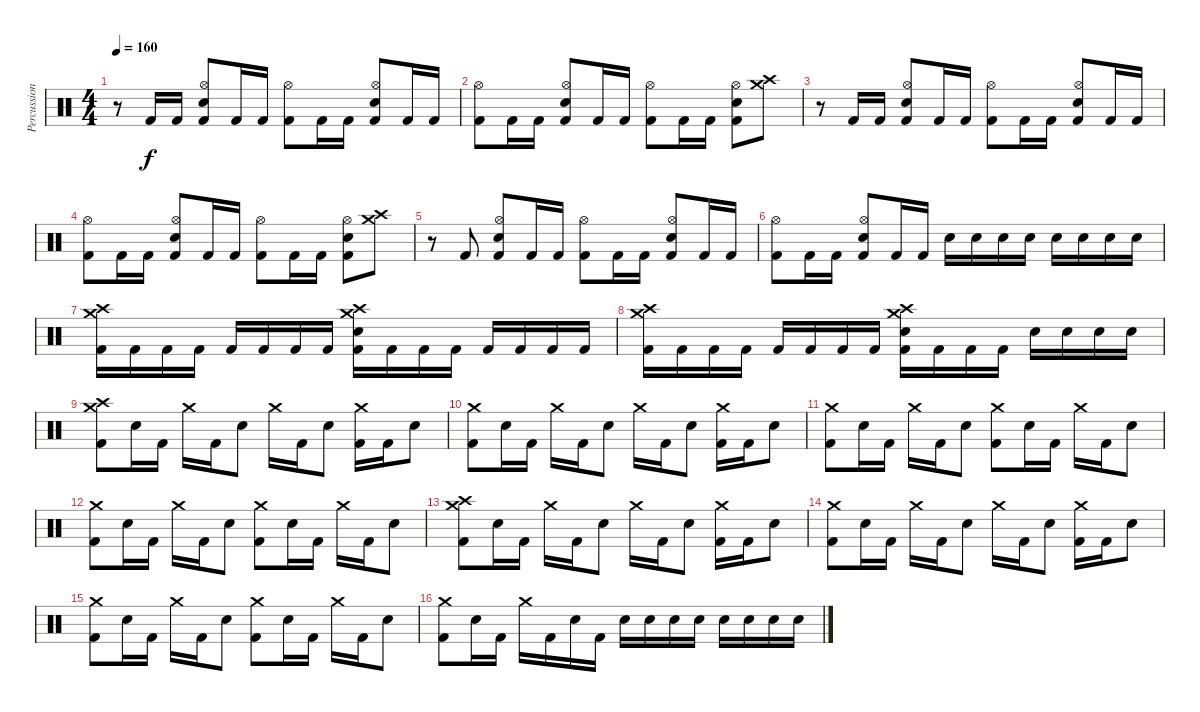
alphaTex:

\track ("Percussion" "Percussion") {instrument percussion}
\staff {score}
\articulation defaults
\ts (4 4)
\tempo 160
\clef neutral
\ks c
r.8{dy f} "Kick (hit) 2".16 "Kick (hit) 2".16 ("Hi-Hat (open)" "Electric Snare (hit)" "Kick (hit) 2").8 "Kick (hit) 2".16 "Kick (hit) 2".16 ("Hi-Hat (open)" "Kick (hit) 2").8 "Kick (hit) 2".16 "Kick (hit) 2".16 ("Hi-Hat (open)" "Electric Snare (hit)" "Kick (hit) 2").8 "Kick (hit) 2".16 "Kick (hit) 2".16 |
("Hi-Hat (open)" "Kick (hit) 2").8 "Kick (hit) 2".16 "Kick (hit) 2".16 ("Hi-Hat (open)" "Electric Snare (hit)" "Kick (hit) 2").8 "Kick (hit) 2".16 "Kick (hit) 2".16 ("Hi-Hat (open)" "Kick (hit) 2").8 "Kick (hit) 2".16 "Kick (hit) 2".16 ("Hi-Hat (open)" "Electric Snare (hit)" "Kick (hit) 2").8 ("Crash high (hit)" "Crash medium (hit)").8 |
r.8 "Kick (hit) 2".16 "Kick (hit) 2".16 ("Hi-Hat (open)" "Electric Snare (hit)" "Kick (hit) 2").8 "Kick (hit) 2".16 "Kick (hit) 2".16 ("Hi-Hat (open)" "Kick (hit) 2").8 "Kick (hit) 2".16 "Kick (hit) 2".16 ("Hi-Hat (open)" "Electric Snare (hit)" "Kick (hit) 2").8 "Kick (hit) 2".16 "Kick (hit) 2".16 |
("Hi-Hat (open)" "Kick (hit) 2").8 "Kick (hit) 2".16 "Kick (hit) 2".16 ("Hi-Hat (open)" "Electric Snare (hit)" "Kick (hit) 2").8 "Kick (hit) 2".16 "Kick (hit) 2".16 ("Hi-Hat (open)" "Kick (hit) 2").8 "Kick (hit) 2".16 "Kick (hit) 2".16 ("Hi-Hat (open)" "Electric Snare (hit)" "Kick (hit) 2").8 ("Crash high (hit)" "Crash medium (hit)").8 |
r.8 "Kick (hit) 2".8 ("Hi-Hat (open)" "Electric Snare (hit)" "Kick (hit) 2").8 "Kick (hit) 2".16 "Kick (hit) 2".16 ("Hi-Hat (open)" "Kick (hit) 2").8 "Kick (hit) 2".16 "Kick (hit) 2".16 ("Hi-Hat (open)" "Electric Snare (hit)" "Kick (hit) 2").8 "Kick (hit) 2".16 "Kick (hit) 2".16 |
("Hi-Hat (open)" "Kick (hit) 2").8 "Kick (hit) 2".16 "Kick (hit) 2".16 ("Hi-Hat (open)" "Electric Snare (hit)" "Kick (hit) 2").8 "Kick (hit) 2".16 "Kick (hit) 2".16 "Electric Snare (hit)".16 "Electric Snare (hit)".16 "Electric Snare (hit)".16 "Electric Snare (hit)".16 "Electric Snare (hit)".16 "Electric Snare (hit)".16 "Electric Snare (hit)".16 "Electric Snare (hit)".16 |
("Crash medium (hit)" "Crash high (hit)" "Kick (hit) 2").16 "Kick (hit) 2".16 "Kick (hit) 2".16 "Kick (hit) 2".16 "Kick (hit) 2".16 "Kick (hit) 2".16 "Kick (hit) 2".16 "Kick (hit) 2".16 ("Crash medium (hit)" "Crash high (hit)" "Electric Snare (hit)" "Kick (hit) 2").16 "Kick (hit) 2".16 "Kick (hit) 2".16 "Kick (hit) 2".16 "Kick (hit) 2".16 "Kick (hit) 2".16 "Kick (hit) 2".16 "Kick (hit) 2".16 |
("Crash medium (hit)" "Crash high (hit)" "Kick (hit) 2").16 "Kick (hit) 2".16 "Kick (hit) 2".16 "Kick (hit) 2".16 "Kick (hit) 2".16 "Kick (hit) 2".16 "Kick (hit) 2".16 "Kick (hit) 2".16 ("Crash medium (hit)" "Crash high (hit)" "Electric Snare (hit)" "Kick (hit) 2").16 "Kick (hit) 2".16 "Kick (hit) 2".16 "Kick (hit) 2".16 "Electric Snare (hit)".16 "Electric Snare (hit)".16 "Electric Snare (hit)".16 "Electric Snare (hit)".16 |
("Crash high (hit)" "Crash medium (hit)" "Kick (hit) 2").8 "Electric Snare (hit)".16 "Kick (hit) 2".16 "Crash medium (hit)".16 "Kick (hit) 2".16 "Electric Snare (hit)".8 "Crash medium (hit)".16 "Kick (hit) 2".16 "Electric Snare (hit)".8 ("Crash medium (hit)" "Kick (hit) 2").16 "Kick (hit) 2".16 "Electric Snare (hit)".8 |
("Crash medium (hit)" "Kick (hit) 2").8 "Electric Snare (hit)".16 "Kick (hit) 2".16 "Crash medium (hit)".16 "Kick (hit) 2".16 "Electric Snare (hit)".8 "Crash medium (hit)".16 "Kick (hit) 2".16 "Electric Snare (hit)".8 ("Crash medium (hit)" "Kick (hit) 2").16 "Kick (hit) 2".16 "Electric Snare (hit)".8 |
("Crash medium (hit)" "Kick (hit) 2").8 "Electric Snare (hit)".16 "Kick (hit) 2".16 "Crash medium (hit)".16 "Kick (hit) 2".16 "Electric Snare (hit)".8 ("Crash medium (hit)" "Kick (hit) 2").8 "Electric Snare (hit)".16 "Kick (hit) 2".16 "Crash medium (hit)".16 "Kick (hit) 2".16 "Electric Snare (hit)".8 |
("Crash medium (hit)" "Kick (hit) 2").8 "Electric Snare (hit)".16 "Kick (hit) 2".16 "Crash medium (hit)".16 "Kick (hit) 2".16 "Electric Snare (hit)".8 ("Crash medium (hit)" "Kick (hit) 2").8 "Electric Snare (hit)".16 "Kick (hit) 2".16 "Crash medium (hit)".16 "Kick (hit) 2".16 "Electric Snare (hit)".8 |
("Crash high (hit)" "Crash medium (hit)" "Kick (hit) 2").8 "Electric Snare (hit)".16 "Kick (hit) 2".16 "Crash medium (hit)".16 "Kick (hit) 2".16 "Electric Snare (hit)".8 "Crash medium (hit)".16 "Kick (hit) 2".16 "Electric Snare (hit)".8 ("Crash medium (hit)" "Kick (hit) 2").16 "Kick (hit) 2".16 "Electric Snare (hit)".8 |
("Crash medium (hit)" "Kick (hit) 2").8 "Electric Snare (hit)".16 "Kick (hit) 2".16 "Crash medium (hit)".16 "Kick (hit) 2".16 "Electric Snare (hit)".8 "Crash medium (hit)".16 "Kick (hit) 2".16 "Electric Snare (hit)".8 ("Crash medium (hit)" "Kick (hit) 2").16 "Kick (hit) 2".16 "Electric Snare (hit)".8 |
("Crash medium (hit)" "Kick (hit) 2").8 "Electric Snare (hit)".16 "Kick (hit) 2".16 "Crash medium (hit)".16 "Kick (hit) 2".16 "Electric Snare (hit)".8 ("Crash medium (hit)" "Kick (hit) 2").8 "Electric Snare (hit)".16 "Kick (hit) 2".16 "Crash medium (hit)".16 "Kick (hit) 2".16 "Electric Snare (hit)".8 |
("Crash medium (hit)" "Kick (hit) 2").8 "Electric Snare (hit)".16 "Kick (hit) 2".16 "Crash medium (hit)".16 "Kick (hit) 2".16 "Electric Snare (hit)".16 "Kick (hit) 2".16 "Electric Snare (hit)".16 "Electric Snare (hit)".16 "Electric Snare (hit)".16 "Electric Snare (hit)".16 "Electric Snare (hit)".16 "Electric Snare (hit)".16 "Electric Snare (hit)".16 "Electric Snare (hit)".16
